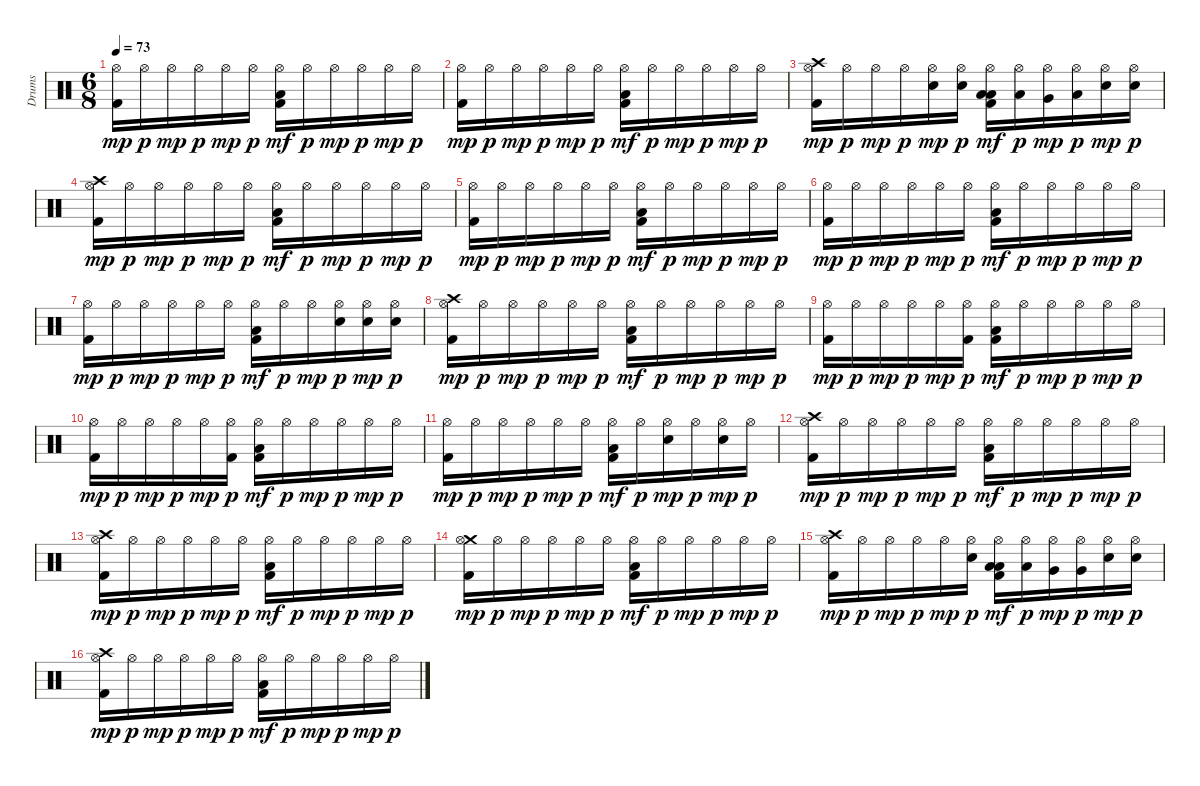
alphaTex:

\track ("Drums" "Drums") {instrument percussion}
\staff {score}
\articulation defaults
\ts (6 8)
\tempo 73
\clef neutral
\ks c
("Hi-Hat (open)" "Kick (hit) 2").16{dy mp} "Hi-Hat (open)".16{dy p} "Hi-Hat (open)".16{dy mp} "Hi-Hat (open)".16{dy p} "Hi-Hat (open)".16{dy mp} "Hi-Hat (open)".16{dy p} ("Hi-Hat (open)" "Low Floor Tom (hit)" "Kick (hit) 2").16{dy mf} "Hi-Hat (open)".16{dy p} "Hi-Hat (open)".16{dy mp} "Hi-Hat (open)".16{dy p} "Hi-Hat (open)".16{dy mp} "Hi-Hat (open)".16{dy p} |
("Hi-Hat (open)" "Kick (hit) 2").16{dy mp} "Hi-Hat (open)".16{dy p} "Hi-Hat (open)".16{dy mp} "Hi-Hat (open)".16{dy p} "Hi-Hat (open)".16{dy mp} "Hi-Hat (open)".16{dy p} ("Hi-Hat (open)" "Low Floor Tom (hit)" "Kick (hit) 2").16{dy mf} "Hi-Hat (open)".16{dy p} "Hi-Hat (open)".16{dy mp} "Hi-Hat (open)".16{dy p} "Hi-Hat (open)".16{dy mp} "Hi-Hat (open)".16{dy p} |
("Crash high (hit)" "Hi-Hat (open)" "Kick (hit) 2").16{dy mp} "Hi-Hat (open)".16{dy p} "Hi-Hat (open)".16{dy mp} "Hi-Hat (open)".16{dy p} ("Snare (hit) 2" "Hi-Hat (open)").16{dy mp} ("Snare (hit) 2" "Hi-Hat (open)").16{dy p} ("Low Tom (hit)" "Hi-Hat (open)" "Low Floor Tom (hit)" "Kick (hit) 2").16{dy mf} ("Low Tom (hit)" "Hi-Hat (open)").16{dy p} ("Very Low Tom (hit)" "Hi-Hat (open)").16{dy mp} ("Low Floor Tom (hit)" "Hi-Hat (open)").16{dy p} ("Snare (hit) 2" "Hi-Hat (open)").16{dy mp} ("Snare (hit) 2" "Hi-Hat (open)").16{dy p} |
("Crash high (hit)" "Hi-Hat (open)" "Kick (hit) 2").16{dy mp} "Hi-Hat (open)".16{dy p} "Hi-Hat (open)".16{dy mp} "Hi-Hat (open)".16{dy p} "Hi-Hat (open)".16{dy mp} "Hi-Hat (open)".16{dy p} ("Hi-Hat (open)" "Low Floor Tom (hit)" "Kick (hit) 2").16{dy mf} "Hi-Hat (open)".16{dy p} "Hi-Hat (open)".16{dy mp} "Hi-Hat (open)".16{dy p} "Hi-Hat (open)".16{dy mp} "Hi-Hat (open)".16{dy p} |
("Hi-Hat (open)" "Kick (hit) 2").16{dy mp} "Hi-Hat (open)".16{dy p} "Hi-Hat (open)".16{dy mp} "Hi-Hat (open)".16{dy p} "Hi-Hat (open)".16{dy mp} "Hi-Hat (open)".16{dy p} ("Hi-Hat (open)" "Low Floor Tom (hit)" "Kick (hit) 2").16{dy mf} "Hi-Hat (open)".16{dy p} "Hi-Hat (open)".16{dy mp} "Hi-Hat (open)".16{dy p} "Hi-Hat (open)".16{dy mp} "Hi-Hat (open)".16{dy p} |
("Hi-Hat (open)" "Kick (hit) 2").16{dy mp} "Hi-Hat (open)".16{dy p} "Hi-Hat (open)".16{dy mp} "Hi-Hat (open)".16{dy p} "Hi-Hat (open)".16{dy mp} "Hi-Hat (open)".16{dy p} ("Hi-Hat (open)" "Low Floor Tom (hit)" "Kick (hit) 2").16{dy mf} "Hi-Hat (open)".16{dy p} "Hi-Hat (open)".16{dy mp} "Hi-Hat (open)".16{dy p} "Hi-Hat (open)".16{dy mp} "Hi-Hat (open)".16{dy p} |
("Hi-Hat (open)" "Kick (hit) 2").16{dy mp} "Hi-Hat (open)".16{dy p} "Hi-Hat (open)".16{dy mp} "Hi-Hat (open)".16{dy p} "Hi-Hat (open)".16{dy mp} "Hi-Hat (open)".16{dy p} ("Hi-Hat (open)" "Low Floor Tom (hit)" "Kick (hit) 2").16{dy mf} "Hi-Hat (open)".16{dy p} "Hi-Hat (open)".16{dy mp} ("Snare (hit) 2" "Hi-Hat (open)").16{dy p} ("Snare (hit) 2" "Hi-Hat (open)").16{dy mp} ("Snare (hit) 2" "Hi-Hat (open)").16{dy p} |
("Crash high (hit)" "Hi-Hat (open)" "Kick (hit) 2").16{dy mp} "Hi-Hat (open)".16{dy p} "Hi-Hat (open)".16{dy mp} "Hi-Hat (open)".16{dy p} "Hi-Hat (open)".16{dy mp} "Hi-Hat (open)".16{dy p} ("Hi-Hat (open)" "Low Floor Tom (hit)" "Kick (hit) 2").16{dy mf} "Hi-Hat (open)".16{dy p} "Hi-Hat (open)".16{dy mp} "Hi-Hat (open)".16{dy p} "Hi-Hat (open)".16{dy mp} "Hi-Hat (open)".16{dy p} |
("Hi-Hat (open)" "Kick (hit) 2").16{dy mp} "Hi-Hat (open)".16{dy p} "Hi-Hat (open)".16{dy mp} "Hi-Hat (open)".16{dy p} "Hi-Hat (open)".16{dy mp} ("Kick (hit) 2" "Hi-Hat (open)").16{dy p} ("Hi-Hat (open)" "Low Floor Tom (hit)" "Kick (hit) 2").16{dy mf} "Hi-Hat (open)".16{dy p} "Hi-Hat (open)".16{dy mp} "Hi-Hat (open)".16{dy p} "Hi-Hat (open)".16{dy mp} "Hi-Hat (open)".16{dy p} |
("Hi-Hat (open)" "Kick (hit) 2").16{dy mp} "Hi-Hat (open)".16{dy p} "Hi-Hat (open)".16{dy mp} "Hi-Hat (open)".16{dy p} "Hi-Hat (open)".16{dy mp} ("Kick (hit) 2" "Hi-Hat (open)").16{dy p} ("Hi-Hat (open)" "Low Floor Tom (hit)" "Kick (hit) 2").16{dy mf} "Hi-Hat (open)".16{dy p} "Hi-Hat (open)".16{dy mp} "Hi-Hat (open)".16{dy p} "Hi-Hat (open)".16{dy mp} "Hi-Hat (open)".16{dy p} |
("Hi-Hat (open)" "Kick (hit) 2").16{dy mp} "Hi-Hat (open)".16{dy p} "Hi-Hat (open)".16{dy mp} "Hi-Hat (open)".16{dy p} "Hi-Hat (open)".16{dy mp} "Hi-Hat (open)".16{dy p} ("Hi-Hat (open)" "Low Floor Tom (hit)" "Kick (hit) 2").16{dy mf} "Hi-Hat (open)".16{dy p} ("Snare (hit) 2" "Hi-Hat (open)").16{dy mp} "Hi-Hat (open)".16{dy p} ("Snare (hit) 2" "Hi-Hat (open)").16{dy mp} "Hi-Hat (open)".16{dy p} |
("Crash high (hit)" "Hi-Hat (open)" "Kick (hit) 2").16{dy mp} "Hi-Hat (open)".16{dy p} "Hi-Hat (open)".16{dy mp} "Hi-Hat (open)".16{dy p} "Hi-Hat (open)".16{dy mp} "Hi-Hat (open)".16{dy p} ("Hi-Hat (open)" "Low Floor Tom (hit)" "Kick (hit) 2").16{dy mf} "Hi-Hat (open)".16{dy p} "Hi-Hat (open)".16{dy mp} "Hi-Hat (open)".16{dy p} "Hi-Hat (open)".16{dy mp} "Hi-Hat (open)".16{dy p} |
("Crash high (hit)" "Hi-Hat (open)" "Kick (hit) 2").16{dy mp} "Hi-Hat (open)".16{dy p} "Hi-Hat (open)".16{dy mp} "Hi-Hat (open)".16{dy p} "Hi-Hat (open)".16{dy mp} "Hi-Hat (open)".16{dy p} ("Hi-Hat (open)" "Low Floor Tom (hit)" "Kick (hit) 2").16{dy mf} "Hi-Hat (open)".16{dy p} "Hi-Hat (open)".16{dy mp} "Hi-Hat (open)".16{dy p} "Hi-Hat (open)".16{dy mp} "Hi-Hat (open)".16{dy p} |
("Crash medium (hit)" "Hi-Hat (open)" "Kick (hit) 2").16{dy mp} "Hi-Hat (open)".16{dy p} "Hi-Hat (open)".16{dy mp} "Hi-Hat (open)".16{dy p} "Hi-Hat (open)".16{dy mp} "Hi-Hat (open)".16{dy p} ("Hi-Hat (open)" "Low Floor Tom (hit)" "Kick (hit) 2").16{dy mf} "Hi-Hat (open)".16{dy p} "Hi-Hat (open)".16{dy mp} "Hi-Hat (open)".16{dy p} "Hi-Hat (open)".16{dy mp} "Hi-Hat (open)".16{dy p} |
("Crash high (hit)" "Hi-Hat (open)" "Kick (hit) 2").16{dy mp} "Hi-Hat (open)".16{dy p} "Hi-Hat (open)".16{dy mp} "Hi-Hat (open)".16{dy p} "Hi-Hat (open)".16{dy mp} ("Snare (hit) 2" "Hi-Hat (open)").16{dy p} ("Low Tom (hit)" "Hi-Hat (open)" "Low Floor Tom (hit)" "Kick (hit) 2").16{dy mf} ("Low Tom (hit)" "Hi-Hat (open)").16{dy p} ("Very Low Tom (hit)" "Hi-Hat (open)").16{dy mp} ("Very Low Tom (hit)" "Hi-Hat (open)").16{dy p} ("Snare (hit) 2" "Hi-Hat (open)").16{dy mp} ("Snare (hit) 2" "Hi-Hat (open)").16{dy p} |
("Crash high (hit)" "Hi-Hat (open)" "Kick (hit) 2").16{dy mp} "Hi-Hat (open)".16{dy p} "Hi-Hat (open)".16{dy mp} "Hi-Hat (open)".16{dy p} "Hi-Hat (open)".16{dy mp} "Hi-Hat (open)".16{dy p} ("Hi-Hat (open)" "Low Floor Tom (hit)" "Kick (hit) 2").16{dy mf} "Hi-Hat (open)".16{dy p} "Hi-Hat (open)".16{dy mp} "Hi-Hat (open)".16{dy p} "Hi-Hat (open)".16{dy mp} "Hi-Hat (open)".16{dy p}
